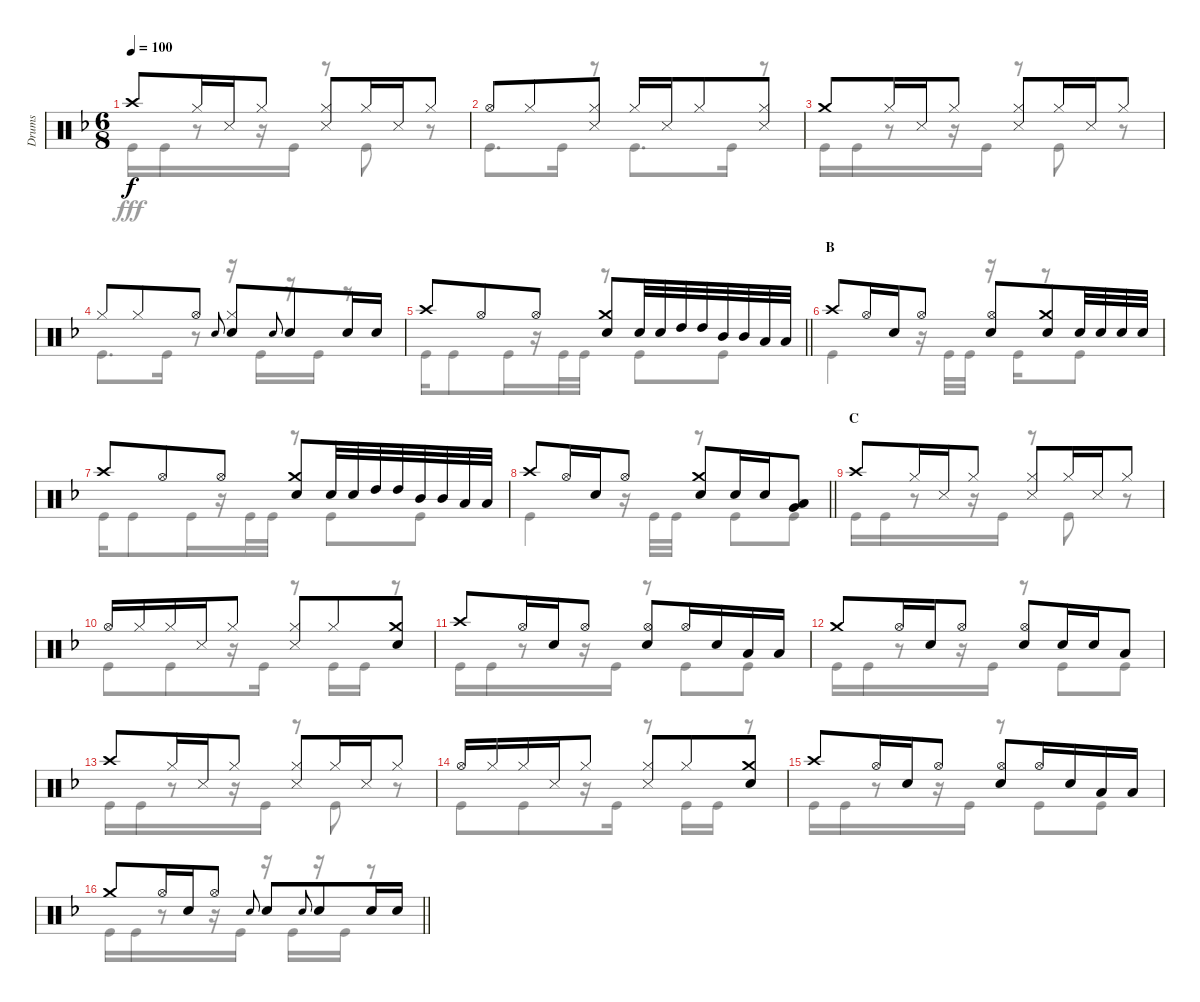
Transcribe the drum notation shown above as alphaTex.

\track ("Drums" "Drums") {instrument percussion}
\staff {score}
\articulation defaults
\voice
\ts (6 8)
\tempo 100
\clef neutral
\ks f "Crash high (hit)".8{dy f} "Hi-Hat (closed)".16 "Snare (side stick) 3".16 "Hi-Hat (closed)".8
("Hi-Hat (closed)" "Snare (side stick) 3").8 "Hi-Hat (closed)".16 "Snare (side stick) 3".16 "Hi-Hat (closed)".8 |
"Hi-Hat (open)".8 "Hi-Hat (closed)".8 ("Hi-Hat (closed)" "Snare (side stick) 3").8 "Hi-Hat (closed)".16 "Snare (side stick) 3".16 "Hi-Hat (closed)".8 ("Hi-Hat (closed)" "Snare (side stick) 3").8 |
"Crash medium (hit)".8 "Hi-Hat (closed)".16 "Snare (side stick) 3".16 "Hi-Hat (closed)".8 ("Hi-Hat (closed)" "Snare (side stick) 3").8 "Hi-Hat (closed)".16 "Snare (side stick) 3".16 "Hi-Hat (closed)".8 |
"Hi-Hat (closed)".8 "Hi-Hat (closed)".8 "Hi-Hat (open)".8 "Snare (hit) 2".8{gr onbeat} ("Hi-Hat (closed)" "Snare (hit) 2").8 "Snare (hit) 2".8{gr onbeat} "Snare (hit) 2".8 "Snare (hit) 2".16 "Snare (hit) 2".16 |
\barLineRight lightlight "Crash high (hit)".8 "Hi-Hat (open)".8 "Hi-Hat (open)".8
("Crash medium (hit)" "Snare (hit) 2").8 "Snare (hit) 2".32 "Snare (hit) 2".32 "High Tom (hit)".32 "High Tom (hit)".32 "Mid Tom (hit)".32 "Mid Tom (hit)".32 "Low Tom (hit)".32 "Low Tom (hit)".32 |
\section ("" "B")
"Crash high (hit)".8 "Hi-Hat (open)".16 "Snare (hit) 2".16 "Hi-Hat (open)".8 ("Hi-Hat (open)" "Snare (hit) 2").8 ("Crash medium (hit)" "Snare (hit) 2").8 "Snare (hit) 2".32 "Snare (hit) 2".32 "Snare (hit) 2".32 "Snare (hit) 2".32 |
"Crash high (hit)".8 "Hi-Hat (open)".8 "Hi-Hat (open)".8 ("Crash medium (hit)" "Snare (hit) 2").8 "Snare (hit) 2".32 "Snare (hit) 2".32 "High Tom (hit)".32 "High Tom (hit)".32 "Mid Tom (hit)".32 "Mid Tom (hit)".32 "Low Tom (hit)".32 "Low Tom (hit)".32 |
\barLineRight lightlight "Crash high (hit)".8 "Hi-Hat (open)".16 "Snare (hit) 2".16 "Hi-Hat (open)".8
("Crash medium (hit)" "Snare (hit) 2").8 "Snare (hit) 2".16 "Snare (hit) 2".16 ("Low Tom (hit)" "Very Low Tom (hit)").8 |
\section ("" "C")
"Crash high (hit)".8 "Hi-Hat (closed)".16 "Snare (side stick) 3".16 "Hi-Hat (closed)".8 ("Hi-Hat (closed)" "Snare (side stick) 3").8 "Hi-Hat (closed)".16 "Snare (side stick) 3".16 "Hi-Hat (closed)".8 |
"Hi-Hat (open)".16 "Hi-Hat (closed)".16 "Hi-Hat (closed)".16 "Snare (side stick) 3".16 "Hi-Hat (closed)".8 ("Hi-Hat (closed)" "Snare (side stick) 3").8 "Hi-Hat (closed)".8 ("Crash medium (hit)" "Snare (hit) 2").8 |
"Crash high (hit)".8 "Hi-Hat (open)".16 "Snare (hit) 2".16 "Hi-Hat (open)".8 ("Hi-Hat (open)" "Snare (hit) 2").8 "Hi-Hat (open)".16 "Snare (hit) 2".16 "Low Tom (hit)".16 "Low Tom (hit)".16 |
"Crash medium (hit)".8 "Hi-Hat (open)".16 "Snare (hit) 2".16 "Hi-Hat (open)".8 ("Hi-Hat (open)" "Snare (hit) 2").8 "Snare (hit) 2".16 "Snare (hit) 2".16 "Low Tom (hit)".8 |
"Crash high (hit)".8 "Hi-Hat (closed)".16 "Snare (side stick) 3".16 "Hi-Hat (closed)".8 ("Hi-Hat (closed)" "Snare (side stick) 3").8 "Hi-Hat (closed)".16 "Snare (side stick) 3".16 "Hi-Hat (closed)".8 |
"Hi-Hat (open)".16 "Hi-Hat (closed)".16 "Hi-Hat (closed)".16 "Snare (side stick) 3".16 "Hi-Hat (closed)".8 ("Hi-Hat (closed)" "Snare (side stick) 3").8 "Hi-Hat (closed)".8 ("Crash medium (hit)" "Snare (hit) 2").8 |
"Crash high (hit)".8 "Hi-Hat (open)".16 "Snare (hit) 2".16 "Hi-Hat (open)".8 ("Hi-Hat (open)" "Snare (hit) 2").8 "Hi-Hat (open)".16 "Snare (hit) 2".16 "Low Tom (hit)".16 "Low Tom (hit)".16 |
\barLineRight lightlight "Crash medium (hit)".8 "Hi-Hat (open)".16 "Snare (hit) 2".16 "Hi-Hat (open)".8 "Snare (hit) 2".8{gr onbeat} "Snare (hit) 2".8 "Snare (hit) 2".8{gr onbeat} "Snare (hit) 2".8 "Snare (hit) 2".16 "Snare (hit) 2".16
\voice
\clef neutral
\ottava regular
\simile none
\ks f "Kick (hit)".16{dy fff} "Kick (hit)".16
r.8 r.16 "Kick (hit)".16 r.8 "Kick (hit)".8 r.8 |
"Kick (hit)".8{d} "Kick (hit)".16 r.8 "Kick (hit)".8{d} "Kick (hit)".16 r.8 |
"Kick (hit)".16 "Kick (hit)".16 r.8 r.16 "Kick (hit)".16 r.8 "Kick (hit)".8 r.8 |
"Kick (hit)".8{d} "Kick (hit)".16 r.8 r.16 "Kick (hit)".16 r.16 "Kick (hit)".16 r.8 |
\barLineRight lightlight "Kick (hit)".16 "Kick (hit)".8 "Kick (hit)".16
r.16 "Kick (hit)".32 "Kick (hit)".32 r.8 "Kick (hit)".8 "Kick (hit)".8 |
"Kick (hit)".4 r.16 "Kick (hit)".32 "Kick (hit)".32 r.16 "Kick (hit)".16 r.8 "Kick (hit)".8 |
"Kick (hit)".16 "Kick (hit)".8 "Kick (hit)".16 r.16 "Kick (hit)".32 "Kick (hit)".32 r.8 "Kick (hit)".8 "Kick (hit)".8 |
\barLineRight lightlight "Kick (hit)".4
r.16 "Kick (hit)".32 "Kick (hit)".32 r.8 "Kick (hit)".8 "Kick (hit)".8 |
"Kick (hit)".16 "Kick (hit)".16 r.8 r.16 "Kick (hit)".16 r.8 "Kick (hit)".8 r.8 |
"Kick (hit)".8 "Kick (hit)".8 r.16 "Kick (hit)".16 r.8 "Kick (hit)".16 "Kick (hit)".16 r.8 |
"Kick (hit)".16 "Kick (hit)".16 r.8 r.16 "Kick (hit)".16 r.8 "Kick (hit)".8 "Kick (hit)".8 |
"Kick (hit)".16 "Kick (hit)".16 r.8 r.16 "Kick (hit)".16 r.8 "Kick (hit)".8 "Kick (hit)".8 |
"Kick (hit)".16 "Kick (hit)".16 r.8 r.16 "Kick (hit)".16 r.8 "Kick (hit)".8 r.8 |
"Kick (hit)".8 "Kick (hit)".8 r.16 "Kick (hit)".16 r.8 "Kick (hit)".16 "Kick (hit)".16 r.8 |
"Kick (hit)".16 "Kick (hit)".16 r.8 r.16 "Kick (hit)".16 r.8 "Kick (hit)".8 "Kick (hit)".8 |
\barLineRight lightlight "Kick (hit)".16 "Kick (hit)".16
r.8 r.16 "Kick (hit)".16 r.16 "Kick (hit)".16 r.16 "Kick (hit)".16 r.8
